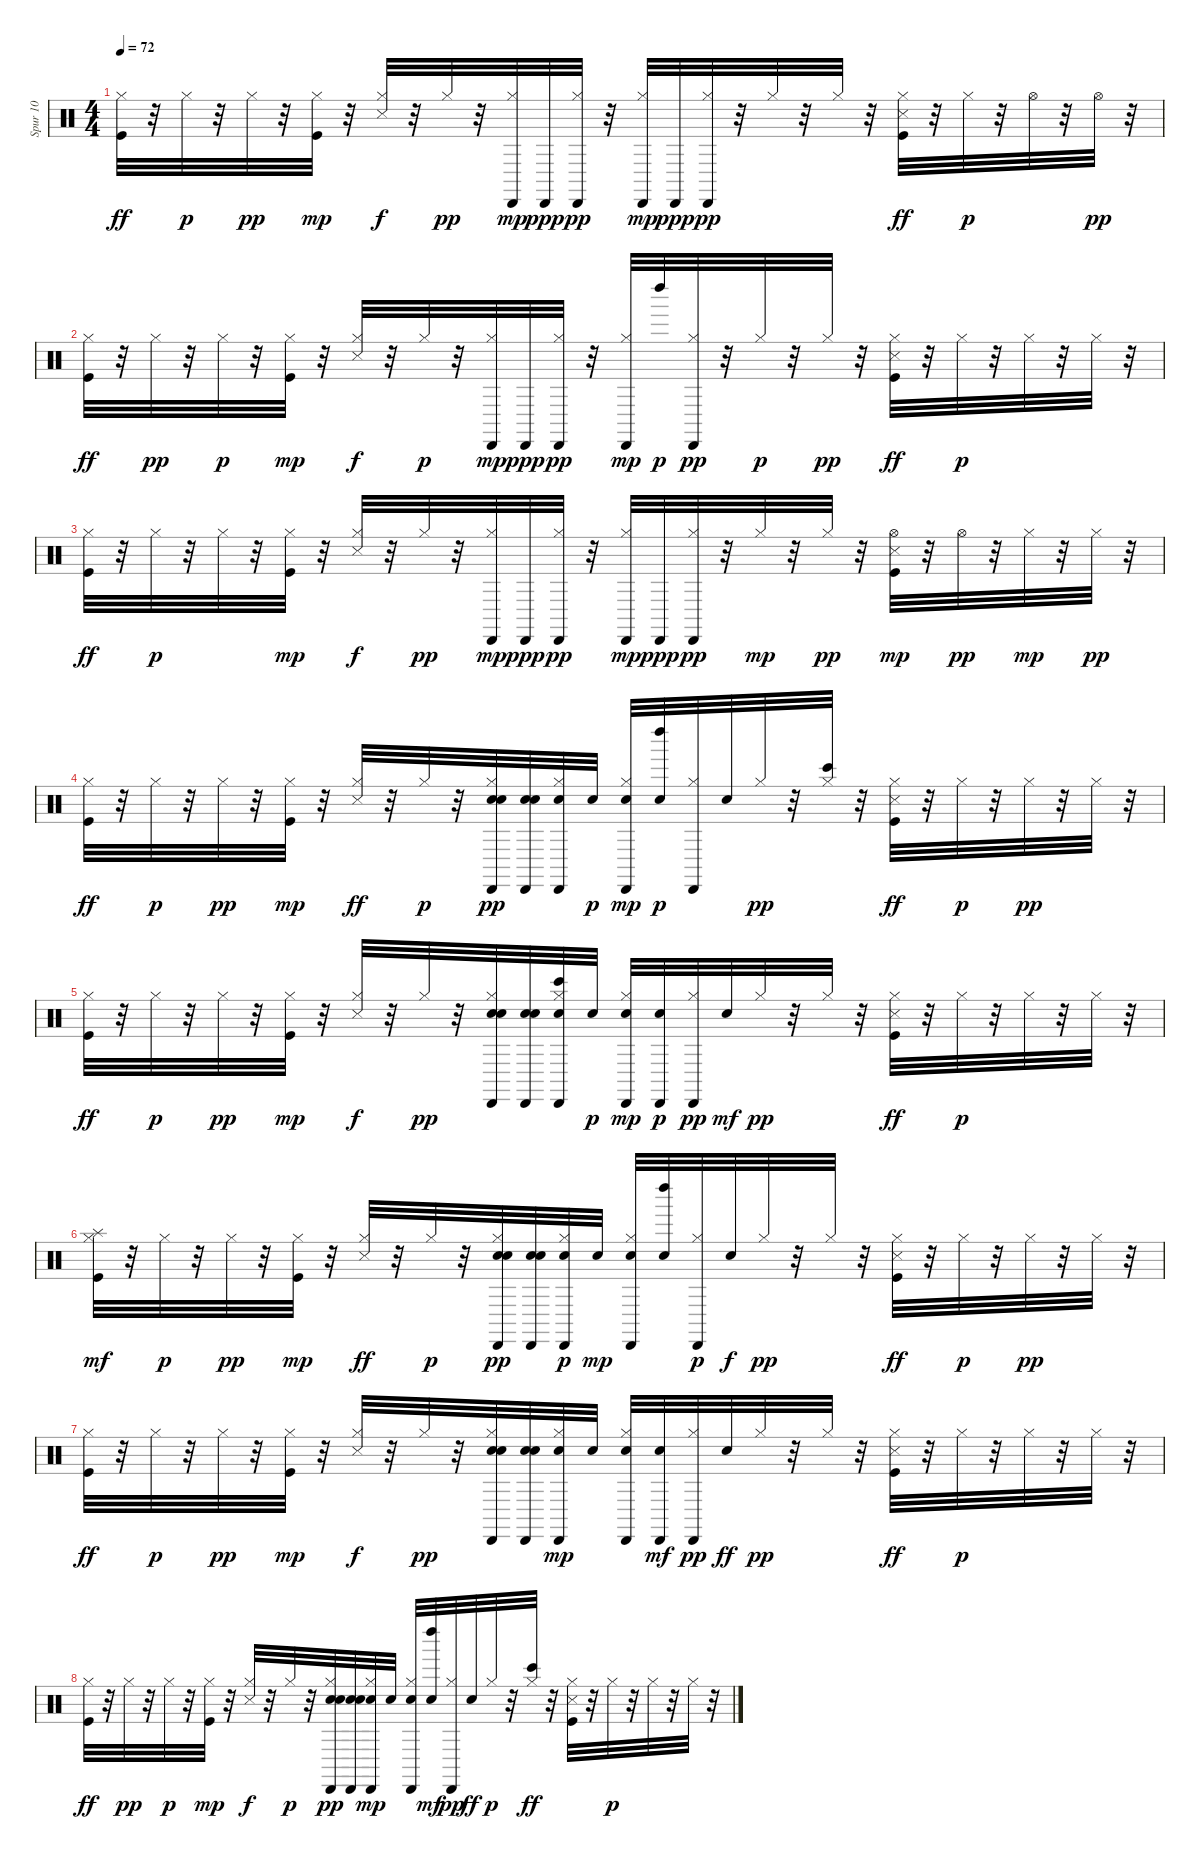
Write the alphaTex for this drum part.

\track ("Spur 10" "Spur 10") {instrument percussion}
\staff {score}
\articulation defaults
\ts (4 4)
\tempo 72
\clef neutral
\ks c
("Kick (hit)" "Hi-Hat (closed)").32{dy ff} r.32 "Hi-Hat (closed)".32{dy p} r.32 "Hi-Hat (closed)".32{dy pp} r.32 ("Hi-Hat (closed)" "Kick (hit)").32{dy mp} r.32 ("Hi-Hat (closed)" "Snare (side stick) 3").32{dy f} r.32 "Hi-Hat (closed)".32{dy pp} r.32 ("Hi-Hat (closed)" "Cabasa (hit)").32{dy mp} "Cabasa (hit)".32{dy ppp} ("Hi-Hat (closed)" "Cabasa (hit)").32{dy pp} r.32 ("Hi-Hat (closed)" "Cabasa (hit)").32{dy mp} "Cabasa (hit)".32{dy ppp} ("Cabasa (hit)" "Hi-Hat (closed)").32{dy pp} r.32 "Hi-Hat (closed)".32 r.32 "Hi-Hat (closed)".32 r.32 ("Snare (side stick) 3" "Kick (hit)" "Hi-Hat (closed)").32{dy ff} r.32 "Hi-Hat (closed)".32{dy p} r.32 "Hi-Hat (open)".32 r.32 "Hi-Hat (open)".32{dy pp} r.32 |
("Kick (hit)" "Hi-Hat (closed)").32{dy ff} r.32 "Hi-Hat (closed)".32{dy pp} r.32 "Hi-Hat (closed)".32{dy p} r.32 ("Hi-Hat (closed)" "Kick (hit)").32{dy mp} r.32 ("Hi-Hat (closed)" "Snare (side stick) 3").32{dy f} r.32 "Hi-Hat (closed)".32{dy p} r.32 ("Hi-Hat (closed)" "Cabasa (hit)").32{dy mp} "Cabasa (hit)".32{dy ppp} ("Hi-Hat (closed)" "Cabasa (hit)").32{dy pp} r.32 ("Hi-Hat (closed)" "Cabasa (hit)").32{dy mp} "Left Maraca (hit)".32{dy p} ("Cabasa (hit)" "Hi-Hat (closed)").32{dy pp} r.32 "Hi-Hat (closed)".32{dy p} r.32 "Hi-Hat (closed)".32{dy pp} r.32 ("Snare (side stick) 3" "Kick (hit)" "Hi-Hat (closed)").32{dy ff} r.32 "Hi-Hat (closed)".32{dy p} r.32 "Hi-Hat (closed)".32 r.32 "Hi-Hat (closed)".32 r.32 |
("Kick (hit)" "Hi-Hat (closed)").32{dy ff} r.32 "Hi-Hat (closed)".32{dy p} r.32 "Hi-Hat (closed)".32 r.32 ("Hi-Hat (closed)" "Kick (hit)").32{dy mp} r.32 ("Hi-Hat (closed)" "Snare (side stick) 3").32{dy f} r.32 "Hi-Hat (closed)".32{dy pp} r.32 ("Hi-Hat (closed)" "Cabasa (hit)").32{dy mp} "Cabasa (hit)".32{dy ppp} ("Hi-Hat (closed)" "Cabasa (hit)").32{dy pp} r.32 ("Hi-Hat (closed)" "Cabasa (hit)").32{dy mp} "Cabasa (hit)".32{dy ppp} ("Cabasa (hit)" "Hi-Hat (closed)").32{dy pp} r.32 "Hi-Hat (closed)".32{dy mp} r.32 "Hi-Hat (closed)".32{dy pp} r.32 ("Snare (side stick) 3" "Kick (hit)" "Hi-Hat (open)").32{dy mp} r.32 "Hi-Hat (open)".32{dy pp} r.32 "Hi-Hat (closed)".32{dy mp} r.32 "Hi-Hat (closed)".32{dy pp} r.32 |
("Kick (hit)" "Hi-Hat (closed)").32{dy ff} r.32 "Hi-Hat (closed)".32{dy p} r.32 "Hi-Hat (closed)".32{dy pp} r.32 ("Hi-Hat (closed)" "Kick (hit)").32{dy mp} r.32 ("Snare (side stick) 3" "Hi-Hat (closed)").32{dy ff} r.32 "Hi-Hat (closed)".32{dy p} r.32 ("Snare (hit) 2" "Hi-Hat (closed)" "Cabasa (hit)" "Snare (hit) 2").32{dy pp} ("Cabasa (hit)" "Snare (hit) 2" "Snare (hit) 2").32 ("Hi-Hat (closed)" "Cabasa (hit)" "Snare (hit) 2").32 "Snare (hit) 2".32{dy p} ("Snare (hit) 2" "Cabasa (hit)" "Hi-Hat (closed)").32{dy mp} ("Left Maraca (hit)" "Snare (hit) 2").32{dy p} ("Cabasa (hit)" "Hi-Hat (closed)").32 "Snare (hit) 2".32 "Hi-Hat (closed)".32{dy pp} r.32 ("Bongo High (hit)" "Hi-Hat (closed)").32 r.32 ("Snare (side stick) 3" "Kick (hit)" "Hi-Hat (closed)").32{dy ff} r.32 "Hi-Hat (closed)".32{dy p} r.32 "Hi-Hat (closed)".32{dy pp} r.32 "Hi-Hat (closed)".32 r.32 |
("Kick (hit)" "Hi-Hat (closed)").32{dy ff} r.32 "Hi-Hat (closed)".32{dy p} r.32 "Hi-Hat (closed)".32{dy pp} r.32 ("Hi-Hat (closed)" "Kick (hit)").32{dy mp} r.32 ("Snare (side stick) 3" "Hi-Hat (closed)").32{dy f} r.32 "Hi-Hat (closed)".32{dy pp} r.32 ("Snare (hit) 2" "Hi-Hat (closed)" "Cabasa (hit)" "Snare (hit) 2").32 ("Cabasa (hit)" "Snare (hit) 2" "Snare (hit) 2").32 ("Hi-Hat (closed)" "Cabasa (hit)" "Bongo High (hit)" "Snare (hit) 2").32 "Snare (hit) 2".32{dy p} ("Snare (hit) 2" "Hi-Hat (closed)" "Cabasa (hit)").32{dy mp} ("Cabasa (hit)" "Snare (hit) 2").32{dy p} ("Cabasa (hit)" "Hi-Hat (closed)").32{dy pp} "Snare (hit) 2".32{dy mf} "Hi-Hat (closed)".32{dy pp} r.32 "Hi-Hat (closed)".32 r.32 ("Snare (side stick) 3" "Kick (hit)" "Hi-Hat (closed)").32{dy ff} r.32 "Hi-Hat (closed)".32{dy p} r.32 "Hi-Hat (closed)".32 r.32 "Hi-Hat (closed)".32 r.32 |
("Kick (hit)" "Hi-Hat (closed)" "Splash (hit)").32{dy mf} r.32 "Hi-Hat (closed)".32{dy p} r.32 "Hi-Hat (closed)".32{dy pp} r.32 ("Hi-Hat (closed)" "Kick (hit)").32{dy mp} r.32 ("Snare (side stick) 3" "Hi-Hat (closed)").32{dy ff} r.32 "Hi-Hat (closed)".32{dy p} r.32 ("Snare (hit) 2" "Hi-Hat (closed)" "Cabasa (hit)" "Snare (hit) 2").32{dy pp} ("Cabasa (hit)" "Snare (hit) 2" "Snare (hit) 2").32 ("Hi-Hat (closed)" "Cabasa (hit)" "Snare (hit) 2").32{dy p} "Snare (hit) 2".32{dy mp} ("Snare (hit) 2" "Cabasa (hit)" "Hi-Hat (closed)").32 ("Left Maraca (hit)" "Snare (hit) 2").32 ("Cabasa (hit)" "Hi-Hat (closed)").32{dy p} "Snare (hit) 2".32{dy f} "Hi-Hat (closed)".32{dy pp} r.32 "Hi-Hat (closed)".32 r.32 ("Snare (side stick) 3" "Kick (hit)" "Hi-Hat (closed)").32{dy ff} r.32 "Hi-Hat (closed)".32{dy p} r.32 "Hi-Hat (closed)".32{dy pp} r.32 "Hi-Hat (closed)".32 r.32 |
("Kick (hit)" "Hi-Hat (closed)").32{dy ff} r.32 "Hi-Hat (closed)".32{dy p} r.32 "Hi-Hat (closed)".32{dy pp} r.32 ("Hi-Hat (closed)" "Kick (hit)").32{dy mp} r.32 ("Snare (side stick) 3" "Hi-Hat (closed)").32{dy f} r.32 "Hi-Hat (closed)".32{dy pp} r.32 ("Snare (hit) 2" "Hi-Hat (closed)" "Cabasa (hit)" "Snare (hit) 2").32 ("Cabasa (hit)" "Snare (hit) 2" "Snare (hit) 2").32 ("Hi-Hat (closed)" "Cabasa (hit)" "Snare (hit) 2").32{dy mp} "Snare (hit) 2".32 ("Snare (hit) 2" "Hi-Hat (closed)" "Cabasa (hit)").32 ("Cabasa (hit)" "Snare (hit) 2").32{dy mf} ("Cabasa (hit)" "Hi-Hat (closed)").32{dy pp} "Snare (hit) 2".32{dy ff} "Hi-Hat (closed)".32{dy pp} r.32 "Hi-Hat (closed)".32 r.32 ("Snare (side stick) 3" "Kick (hit)" "Hi-Hat (closed)").32{dy ff} r.32 "Hi-Hat (closed)".32{dy p} r.32 "Hi-Hat (closed)".32 r.32 "Hi-Hat (closed)".32 r.32 |
("Kick (hit)" "Hi-Hat (closed)").32{dy ff} r.32 "Hi-Hat (closed)".32{dy pp} r.32 "Hi-Hat (closed)".32{dy p} r.32 ("Hi-Hat (closed)" "Kick (hit)").32{dy mp} r.32 ("Snare (side stick) 3" "Hi-Hat (closed)").32{dy f} r.32 "Hi-Hat (closed)".32{dy p} r.32 ("Snare (hit) 2" "Hi-Hat (closed)" "Cabasa (hit)" "Snare (hit) 2").32{dy pp} ("Cabasa (hit)" "Snare (hit) 2" "Snare (hit) 2").32 ("Hi-Hat (closed)" "Cabasa (hit)" "Snare (hit) 2").32{dy mp} "Snare (hit) 2".32 ("Snare (hit) 2" "Hi-Hat (closed)" "Cabasa (hit)").32 ("Left Maraca (hit)" "Snare (hit) 2").32{dy mf} ("Cabasa (hit)" "Hi-Hat (closed)").32{dy pp} "Snare (hit) 2".32{dy ff} "Hi-Hat (closed)".32{dy p} r.32 ("Hi-Hat (closed)" "Bongo High (hit)").32{dy ff} r.32 ("Snare (side stick) 3" "Kick (hit)" "Hi-Hat (closed)").32 r.32 "Hi-Hat (closed)".32{dy p} r.32 "Hi-Hat (closed)".32 r.32 "Hi-Hat (closed)".32 r.32
